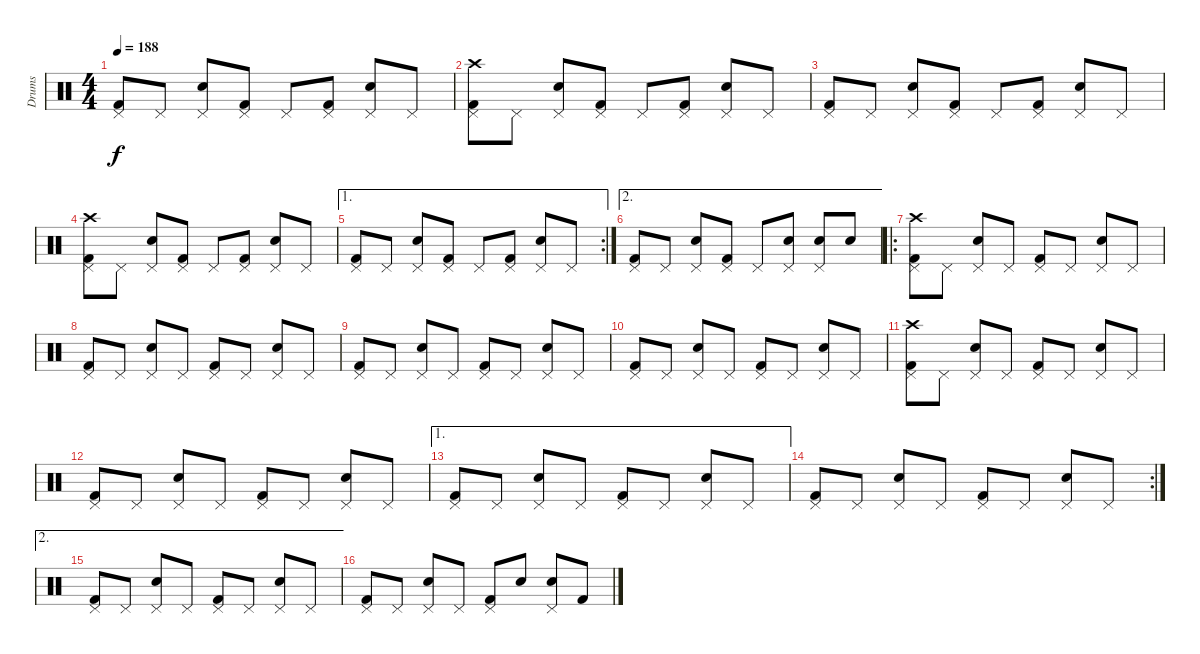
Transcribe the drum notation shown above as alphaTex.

\track ("Drums" "Drums") {instrument percussion}
\staff {score}
\articulation defaults
\ts (4 4)
\tempo 188
\clef neutral
\ks c
("Kick (hit) 2" "Pedal Hi-Hat (hit)").8{dy f} "Pedal Hi-Hat (hit)".8 ("Snare (hit) 2" "Pedal Hi-Hat (hit)").8 ("Kick (hit) 2" "Pedal Hi-Hat (hit)").8 "Pedal Hi-Hat (hit)".8 ("Kick (hit) 2" "Pedal Hi-Hat (hit)").8 ("Snare (hit) 2" "Pedal Hi-Hat (hit)").8 "Pedal Hi-Hat (hit)".8 |
("Kick (hit) 2" "Pedal Hi-Hat (hit)" "Crash high (hit)").8 "Pedal Hi-Hat (hit)".8 ("Snare (hit) 2" "Pedal Hi-Hat (hit)").8 ("Kick (hit) 2" "Pedal Hi-Hat (hit)").8 "Pedal Hi-Hat (hit)".8 ("Kick (hit) 2" "Pedal Hi-Hat (hit)").8 ("Snare (hit) 2" "Pedal Hi-Hat (hit)").8 "Pedal Hi-Hat (hit)".8 |
("Kick (hit) 2" "Pedal Hi-Hat (hit)").8 "Pedal Hi-Hat (hit)".8 ("Snare (hit) 2" "Pedal Hi-Hat (hit)").8 ("Kick (hit) 2" "Pedal Hi-Hat (hit)").8 "Pedal Hi-Hat (hit)".8 ("Kick (hit) 2" "Pedal Hi-Hat (hit)").8 ("Snare (hit) 2" "Pedal Hi-Hat (hit)").8 "Pedal Hi-Hat (hit)".8 |
("Kick (hit) 2" "Pedal Hi-Hat (hit)" "Crash high (hit)").8 "Pedal Hi-Hat (hit)".8 ("Snare (hit) 2" "Pedal Hi-Hat (hit)").8 ("Kick (hit) 2" "Pedal Hi-Hat (hit)").8 "Pedal Hi-Hat (hit)".8 ("Kick (hit) 2" "Pedal Hi-Hat (hit)").8 ("Snare (hit) 2" "Pedal Hi-Hat (hit)").8 "Pedal Hi-Hat (hit)".8 |
\ae 1
\rc 2
("Kick (hit) 2" "Pedal Hi-Hat (hit)").8 "Pedal Hi-Hat (hit)".8 ("Snare (hit) 2" "Pedal Hi-Hat (hit)").8 ("Kick (hit) 2" "Pedal Hi-Hat (hit)").8 "Pedal Hi-Hat (hit)".8 ("Kick (hit) 2" "Pedal Hi-Hat (hit)").8 ("Snare (hit) 2" "Pedal Hi-Hat (hit)").8 "Pedal Hi-Hat (hit)".8 |
\ae 2
("Kick (hit) 2" "Pedal Hi-Hat (hit)").8 "Pedal Hi-Hat (hit)".8 ("Snare (hit) 2" "Pedal Hi-Hat (hit)").8 ("Kick (hit) 2" "Pedal Hi-Hat (hit)").8 "Pedal Hi-Hat (hit)".8 ("Snare (hit) 2" "Pedal Hi-Hat (hit)").8 ("Snare (hit) 2" "Pedal Hi-Hat (hit)").8 "Snare (hit) 2".8 |
\ro
("Kick (hit) 2" "Pedal Hi-Hat (hit)" "Crash high (hit)").8 "Pedal Hi-Hat (hit)".8 ("Snare (hit) 2" "Pedal Hi-Hat (hit)").8 "Pedal Hi-Hat (hit)".8 ("Kick (hit) 2" "Pedal Hi-Hat (hit)").8 "Pedal Hi-Hat (hit)".8 ("Snare (hit) 2" "Pedal Hi-Hat (hit)").8 "Pedal Hi-Hat (hit)".8 |
("Kick (hit) 2" "Pedal Hi-Hat (hit)").8 "Pedal Hi-Hat (hit)".8 ("Snare (hit) 2" "Pedal Hi-Hat (hit)").8 "Pedal Hi-Hat (hit)".8 ("Kick (hit) 2" "Pedal Hi-Hat (hit)").8 "Pedal Hi-Hat (hit)".8 ("Snare (hit) 2" "Pedal Hi-Hat (hit)").8 "Pedal Hi-Hat (hit)".8 |
("Kick (hit) 2" "Pedal Hi-Hat (hit)").8 "Pedal Hi-Hat (hit)".8 ("Snare (hit) 2" "Pedal Hi-Hat (hit)").8 "Pedal Hi-Hat (hit)".8 ("Kick (hit) 2" "Pedal Hi-Hat (hit)").8 "Pedal Hi-Hat (hit)".8 ("Snare (hit) 2" "Pedal Hi-Hat (hit)").8 "Pedal Hi-Hat (hit)".8 |
("Kick (hit) 2" "Pedal Hi-Hat (hit)").8 "Pedal Hi-Hat (hit)".8 ("Snare (hit) 2" "Pedal Hi-Hat (hit)").8 "Pedal Hi-Hat (hit)".8 ("Kick (hit) 2" "Pedal Hi-Hat (hit)").8 "Pedal Hi-Hat (hit)".8 ("Snare (hit) 2" "Pedal Hi-Hat (hit)").8 "Pedal Hi-Hat (hit)".8 |
("Kick (hit) 2" "Pedal Hi-Hat (hit)" "Crash high (hit)").8 "Pedal Hi-Hat (hit)".8 ("Snare (hit) 2" "Pedal Hi-Hat (hit)").8 "Pedal Hi-Hat (hit)".8 ("Kick (hit) 2" "Pedal Hi-Hat (hit)").8 "Pedal Hi-Hat (hit)".8 ("Snare (hit) 2" "Pedal Hi-Hat (hit)").8 "Pedal Hi-Hat (hit)".8 |
("Kick (hit) 2" "Pedal Hi-Hat (hit)").8 "Pedal Hi-Hat (hit)".8 ("Snare (hit) 2" "Pedal Hi-Hat (hit)").8 "Pedal Hi-Hat (hit)".8 ("Kick (hit) 2" "Pedal Hi-Hat (hit)").8 "Pedal Hi-Hat (hit)".8 ("Snare (hit) 2" "Pedal Hi-Hat (hit)").8 "Pedal Hi-Hat (hit)".8 |
\ae 1
("Kick (hit) 2" "Pedal Hi-Hat (hit)").8 "Pedal Hi-Hat (hit)".8 ("Snare (hit) 2" "Pedal Hi-Hat (hit)").8 "Pedal Hi-Hat (hit)".8 ("Kick (hit) 2" "Pedal Hi-Hat (hit)").8 "Pedal Hi-Hat (hit)".8 ("Snare (hit) 2" "Pedal Hi-Hat (hit)").8 "Pedal Hi-Hat (hit)".8 |
\rc 2
("Kick (hit) 2" "Pedal Hi-Hat (hit)").8 "Pedal Hi-Hat (hit)".8 ("Snare (hit) 2" "Pedal Hi-Hat (hit)").8 "Pedal Hi-Hat (hit)".8 ("Kick (hit) 2" "Pedal Hi-Hat (hit)").8 "Pedal Hi-Hat (hit)".8 ("Snare (hit) 2" "Pedal Hi-Hat (hit)").8 "Pedal Hi-Hat (hit)".8 |
\ae 2
("Kick (hit) 2" "Pedal Hi-Hat (hit)").8 "Pedal Hi-Hat (hit)".8 ("Snare (hit) 2" "Pedal Hi-Hat (hit)").8 "Pedal Hi-Hat (hit)".8 ("Kick (hit) 2" "Pedal Hi-Hat (hit)").8 "Pedal Hi-Hat (hit)".8 ("Snare (hit) 2" "Pedal Hi-Hat (hit)").8 "Pedal Hi-Hat (hit)".8 |
("Kick (hit) 2" "Pedal Hi-Hat (hit)").8 "Pedal Hi-Hat (hit)".8 ("Snare (hit) 2" "Pedal Hi-Hat (hit)").8 "Pedal Hi-Hat (hit)".8 ("Kick (hit) 2" "Pedal Hi-Hat (hit)").8 "Snare (hit) 2".8 ("Snare (hit) 2" "Pedal Hi-Hat (hit)").8 "Kick (hit) 2".8
